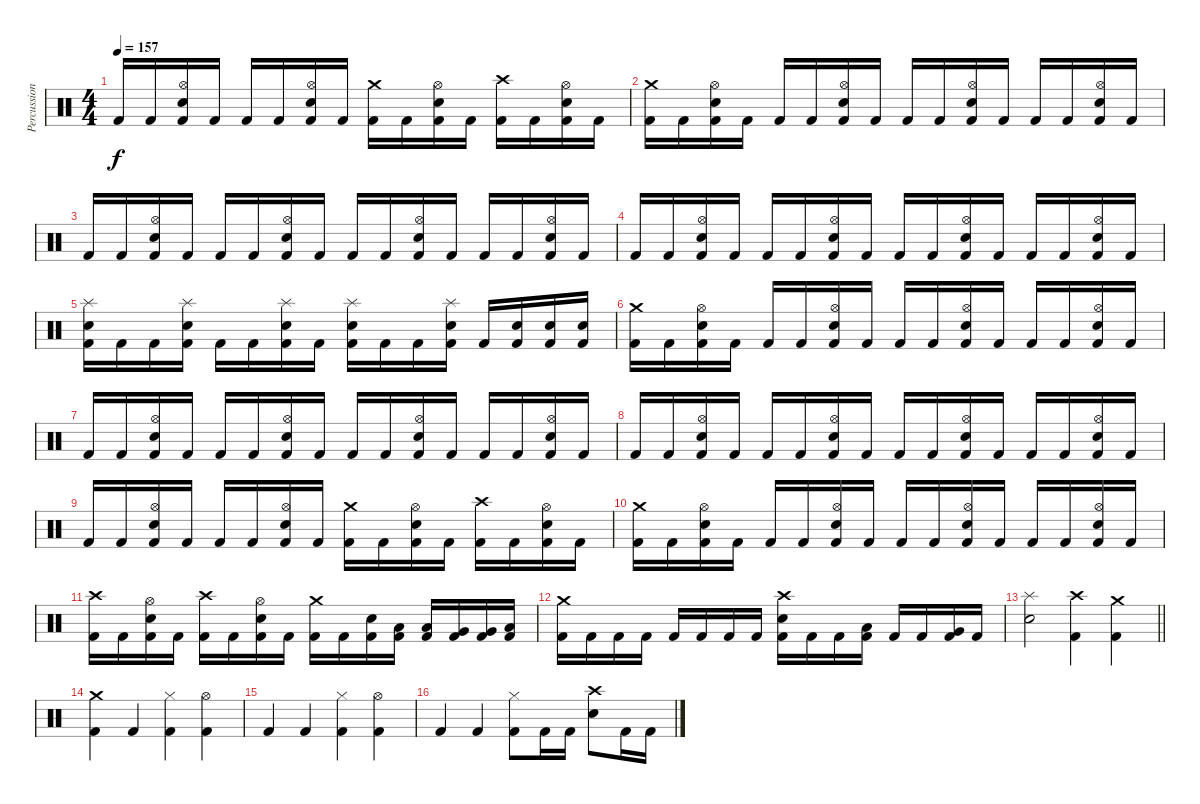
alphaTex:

\track ("Percussion" "Percussion") {instrument percussion}
\staff {score}
\articulation defaults
\ts (4 4)
\tempo 157
\clef neutral
\ks c "Kick (hit) 2".16{dy f} "Kick (hit) 2".16
("Hi-Hat (open)" "Electric Snare (hit)" "Kick (hit) 2").16 "Kick (hit) 2".16 "Kick (hit) 2".16 "Kick (hit) 2".16 ("Hi-Hat (open)" "Electric Snare (hit)" "Kick (hit) 2").16 "Kick (hit) 2".16 ("Crash medium (hit)" "Kick (hit) 2").16 "Kick (hit) 2".16 ("Hi-Hat (open)" "Electric Snare (hit)" "Kick (hit) 2").16 "Kick (hit) 2".16 ("Crash high (hit)" "Kick (hit) 2").16 "Kick (hit) 2".16 ("Hi-Hat (open)" "Electric Snare (hit)" "Kick (hit) 2").16 "Kick (hit) 2".16 |
("Crash medium (hit)" "Kick (hit) 2").16 "Kick (hit) 2".16 ("Hi-Hat (open)" "Electric Snare (hit)" "Kick (hit) 2").16 "Kick (hit) 2".16 "Kick (hit) 2".16 "Kick (hit) 2".16 ("Hi-Hat (open)" "Electric Snare (hit)" "Kick (hit) 2").16 "Kick (hit) 2".16 "Kick (hit) 2".16 "Kick (hit) 2".16 ("Hi-Hat (open)" "Electric Snare (hit)" "Kick (hit) 2").16 "Kick (hit) 2".16 "Kick (hit) 2".16 "Kick (hit) 2".16 ("Hi-Hat (open)" "Electric Snare (hit)" "Kick (hit) 2").16 "Kick (hit) 2".16 |
"Kick (hit) 2".16 "Kick (hit) 2".16 ("Hi-Hat (open)" "Electric Snare (hit)" "Kick (hit) 2").16 "Kick (hit) 2".16 "Kick (hit) 2".16 "Kick (hit) 2".16 ("Hi-Hat (open)" "Electric Snare (hit)" "Kick (hit) 2").16 "Kick (hit) 2".16 "Kick (hit) 2".16 "Kick (hit) 2".16 ("Hi-Hat (open)" "Electric Snare (hit)" "Kick (hit) 2").16 "Kick (hit) 2".16 "Kick (hit) 2".16 "Kick (hit) 2".16 ("Hi-Hat (open)" "Electric Snare (hit)" "Kick (hit) 2").16 "Kick (hit) 2".16 |
"Kick (hit) 2".16 "Kick (hit) 2".16 ("Hi-Hat (open)" "Electric Snare (hit)" "Kick (hit) 2").16 "Kick (hit) 2".16 "Kick (hit) 2".16 "Kick (hit) 2".16 ("Hi-Hat (open)" "Electric Snare (hit)" "Kick (hit) 2").16 "Kick (hit) 2".16 "Kick (hit) 2".16 "Kick (hit) 2".16 ("Hi-Hat (open)" "Electric Snare (hit)" "Kick (hit) 2").16 "Kick (hit) 2".16 "Kick (hit) 2".16 "Kick (hit) 2".16 ("Hi-Hat (open)" "Electric Snare (hit)" "Kick (hit) 2").16 "Kick (hit) 2".16 |
("Splash (hit)" "Electric Snare (hit)" "Kick (hit) 2").16 "Kick (hit) 2".16 "Kick (hit) 2".16 ("Splash (hit)" "Electric Snare (hit)" "Kick (hit) 2").16 "Kick (hit) 2".16 "Kick (hit) 2".16 ("Splash (hit)" "Electric Snare (hit)" "Kick (hit) 2").16 "Kick (hit) 2".16 ("Splash (hit)" "Electric Snare (hit)" "Kick (hit) 2").16 "Kick (hit) 2".16 "Kick (hit) 2".16 ("Splash (hit)" "Electric Snare (hit)" "Kick (hit) 2").16 "Kick (hit) 2".16 ("Electric Snare (hit)" "Kick (hit) 2").16 ("Electric Snare (hit)" "Kick (hit) 2").16 ("Electric Snare (hit)" "Kick (hit) 2").16 |
("Crash medium (hit)" "Kick (hit) 2").16 "Kick (hit) 2".16 ("Hi-Hat (open)" "Electric Snare (hit)" "Kick (hit) 2").16 "Kick (hit) 2".16 "Kick (hit) 2".16 "Kick (hit) 2".16 ("Hi-Hat (open)" "Electric Snare (hit)" "Kick (hit) 2").16 "Kick (hit) 2".16 "Kick (hit) 2".16 "Kick (hit) 2".16 ("Hi-Hat (open)" "Electric Snare (hit)" "Kick (hit) 2").16 "Kick (hit) 2".16 "Kick (hit) 2".16 "Kick (hit) 2".16 ("Hi-Hat (open)" "Electric Snare (hit)" "Kick (hit) 2").16 "Kick (hit) 2".16 |
"Kick (hit) 2".16 "Kick (hit) 2".16 ("Hi-Hat (open)" "Electric Snare (hit)" "Kick (hit) 2").16 "Kick (hit) 2".16 "Kick (hit) 2".16 "Kick (hit) 2".16 ("Hi-Hat (open)" "Electric Snare (hit)" "Kick (hit) 2").16 "Kick (hit) 2".16 "Kick (hit) 2".16 "Kick (hit) 2".16 ("Hi-Hat (open)" "Electric Snare (hit)" "Kick (hit) 2").16 "Kick (hit) 2".16 "Kick (hit) 2".16 "Kick (hit) 2".16 ("Hi-Hat (open)" "Electric Snare (hit)" "Kick (hit) 2").16 "Kick (hit) 2".16 |
"Kick (hit) 2".16 "Kick (hit) 2".16 ("Hi-Hat (open)" "Electric Snare (hit)" "Kick (hit) 2").16 "Kick (hit) 2".16 "Kick (hit) 2".16 "Kick (hit) 2".16 ("Hi-Hat (open)" "Electric Snare (hit)" "Kick (hit) 2").16 "Kick (hit) 2".16 "Kick (hit) 2".16 "Kick (hit) 2".16 ("Hi-Hat (open)" "Electric Snare (hit)" "Kick (hit) 2").16 "Kick (hit) 2".16 "Kick (hit) 2".16 "Kick (hit) 2".16 ("Hi-Hat (open)" "Electric Snare (hit)" "Kick (hit) 2").16 "Kick (hit) 2".16 |
"Kick (hit) 2".16 "Kick (hit) 2".16 ("Hi-Hat (open)" "Electric Snare (hit)" "Kick (hit) 2").16 "Kick (hit) 2".16 "Kick (hit) 2".16 "Kick (hit) 2".16 ("Hi-Hat (open)" "Electric Snare (hit)" "Kick (hit) 2").16 "Kick (hit) 2".16 ("Crash medium (hit)" "Kick (hit) 2").16 "Kick (hit) 2".16 ("Hi-Hat (open)" "Electric Snare (hit)" "Kick (hit) 2").16 "Kick (hit) 2".16 ("Crash high (hit)" "Kick (hit) 2").16 "Kick (hit) 2".16 ("Hi-Hat (open)" "Electric Snare (hit)" "Kick (hit) 2").16 "Kick (hit) 2".16 |
("Crash medium (hit)" "Kick (hit) 2").16 "Kick (hit) 2".16 ("Hi-Hat (open)" "Electric Snare (hit)" "Kick (hit) 2").16 "Kick (hit) 2".16 "Kick (hit) 2".16 "Kick (hit) 2".16 ("Hi-Hat (open)" "Electric Snare (hit)" "Kick (hit) 2").16 "Kick (hit) 2".16 "Kick (hit) 2".16 "Kick (hit) 2".16 ("Hi-Hat (open)" "Electric Snare (hit)" "Kick (hit) 2").16 "Kick (hit) 2".16 "Kick (hit) 2".16 "Kick (hit) 2".16 ("Hi-Hat (open)" "Electric Snare (hit)" "Kick (hit) 2").16 "Kick (hit) 2".16 |
("Crash high (hit)" "Kick (hit) 2").16 "Kick (hit) 2".16 ("Hi-Hat (open)" "Electric Snare (hit)" "Kick (hit) 2").16 "Kick (hit) 2".16 ("Crash high (hit)" "Kick (hit) 2").16 "Kick (hit) 2".16 ("Hi-Hat (open)" "Electric Snare (hit)" "Kick (hit) 2").16 "Kick (hit) 2".16 ("Crash medium (hit)" "Kick (hit) 2").16 "Kick (hit) 2".16 ("Electric Snare (hit)" "Kick (hit) 2").16 ("Low Tom (hit)" "Kick (hit) 2").16 ("Low Tom (hit)" "Kick (hit) 2").16 ("Very Low Tom (hit)" "Kick (hit) 2").16 ("Very Low Tom (hit)" "Kick (hit) 2").16 ("Low Floor Tom (hit)" "Kick (hit) 2").16 |
("Crash medium (hit)" "Kick (hit) 2").16 "Kick (hit) 2".16 "Kick (hit) 2".16 "Kick (hit) 2".16 "Kick (hit) 2".16 "Kick (hit) 2".16 "Kick (hit) 2".16 "Kick (hit) 2".16 ("Crash high (hit)" "Electric Snare (hit)" "Kick (hit) 2").16 "Kick (hit) 2".16 "Kick (hit) 2".16 ("Low Tom (hit)" "Kick (hit) 2").16 "Kick (hit) 2".16 "Kick (hit) 2".16 ("Very Low Tom (hit)" "Kick (hit) 2").16 "Kick (hit) 2".16 |
\barLineRight lightlight
("Splash (hit)" "Electric Snare (hit)").2 ("Crash high (hit)" "Kick (hit) 2").4 ("Crash medium (hit)" "Kick (hit) 2").4 |
("Crash medium (hit)" "Kick (hit) 2").4 "Kick (hit) 2".4 ("Hi-Hat (closed)" "Kick (hit) 2").4 ("Hi-Hat (open)" "Kick (hit) 2").4 |
"Kick (hit) 2".4 "Kick (hit) 2".4 ("Hi-Hat (closed)" "Kick (hit) 2").4 ("Hi-Hat (open)" "Kick (hit) 2").4 |
"Kick (hit) 2".4 "Kick (hit) 2".4 ("Hi-Hat (closed)" "Kick (hit) 2").8 "Kick (hit) 2".16 "Kick (hit) 2".16 ("Crash high (hit)" "Electric Snare (hit)").8 "Kick (hit) 2".16 "Kick (hit) 2".16
